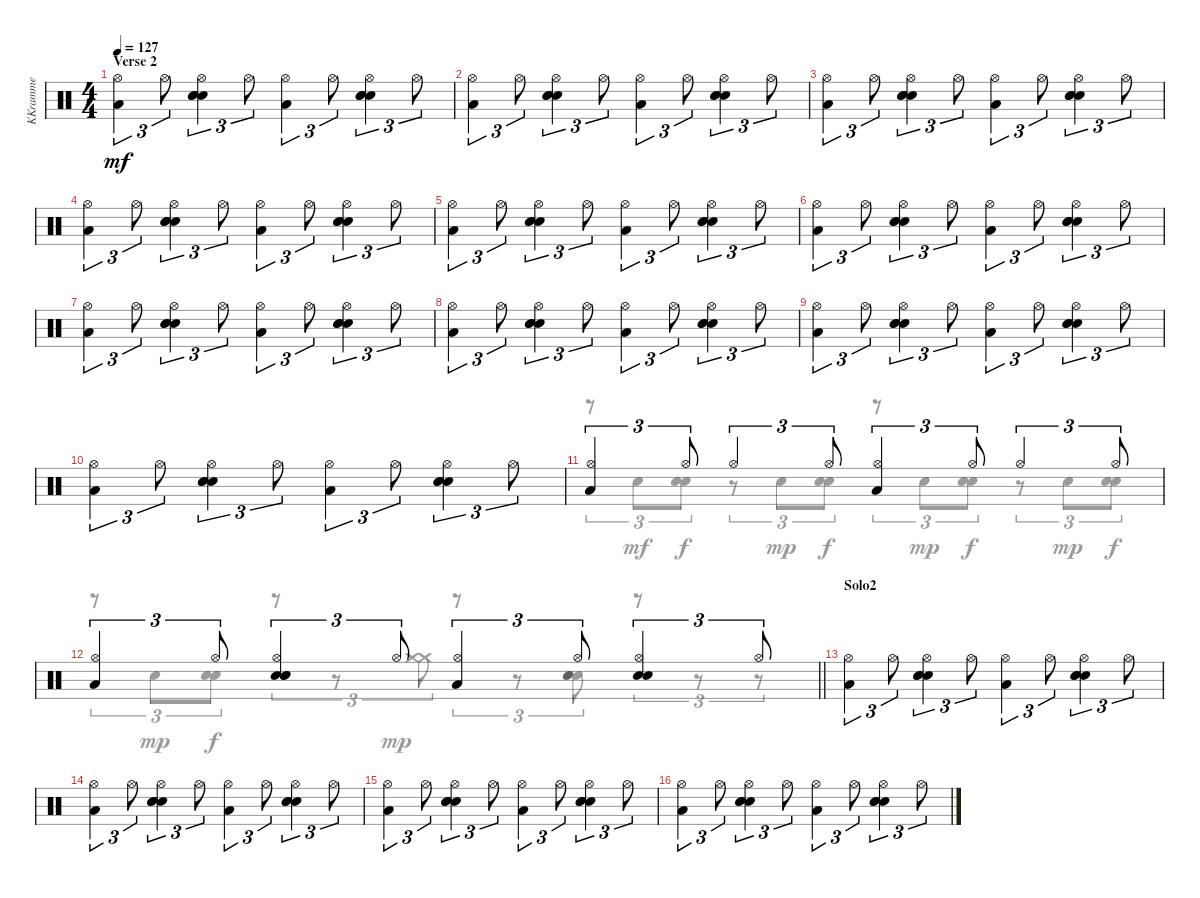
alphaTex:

\track ("KKramme" "KKramme") {instrument percussion}
\staff {score}
\articulation defaults
\voice
\ts (4 4)
\section ("" "Verse 2")
\tempo 127
\clef neutral
\ks c
("Low Tom (hit)" "Hi-Hat (open)").4{tu (3 2) dy mf} "Hi-Hat (open)".8{tu (3 2)} ("Snare (hit) 2" "Snare (hit) 2" "Snare (hit) 2" "Hi-Hat (open)").4{tu (3 2)} "Hi-Hat (open)".8{tu (3 2)} ("Low Tom (hit)" "Hi-Hat (open)").4{tu (3 2)} "Hi-Hat (open)".8{tu (3 2)} ("Snare (hit) 2" "Snare (hit) 2" "Snare (hit) 2" "Hi-Hat (open)").4{tu (3 2)} "Hi-Hat (open)".8{tu (3 2)} |
("Low Tom (hit)" "Hi-Hat (open)").4{tu (3 2)} "Hi-Hat (open)".8{tu (3 2)} ("Snare (hit) 2" "Snare (hit) 2" "Snare (hit) 2" "Hi-Hat (open)").4{tu (3 2)} "Hi-Hat (open)".8{tu (3 2)} ("Low Tom (hit)" "Hi-Hat (open)").4{tu (3 2)} "Hi-Hat (open)".8{tu (3 2)} ("Snare (hit) 2" "Snare (hit) 2" "Snare (hit) 2" "Hi-Hat (open)").4{tu (3 2)} "Hi-Hat (open)".8{tu (3 2)} |
("Low Tom (hit)" "Hi-Hat (open)").4{tu (3 2)} "Hi-Hat (open)".8{tu (3 2)} ("Snare (hit) 2" "Snare (hit) 2" "Snare (hit) 2" "Hi-Hat (open)").4{tu (3 2)} "Hi-Hat (open)".8{tu (3 2)} ("Low Tom (hit)" "Hi-Hat (open)").4{tu (3 2)} "Hi-Hat (open)".8{tu (3 2)} ("Snare (hit) 2" "Snare (hit) 2" "Snare (hit) 2" "Hi-Hat (open)").4{tu (3 2)} "Hi-Hat (open)".8{tu (3 2)} |
("Low Tom (hit)" "Hi-Hat (open)").4{tu (3 2)} "Hi-Hat (open)".8{tu (3 2)} ("Snare (hit) 2" "Snare (hit) 2" "Snare (hit) 2" "Hi-Hat (open)").4{tu (3 2)} "Hi-Hat (open)".8{tu (3 2)} ("Low Tom (hit)" "Hi-Hat (open)").4{tu (3 2)} "Hi-Hat (open)".8{tu (3 2)} ("Snare (hit) 2" "Snare (hit) 2" "Snare (hit) 2" "Hi-Hat (open)").4{tu (3 2)} "Hi-Hat (open)".8{tu (3 2)} |
("Low Tom (hit)" "Hi-Hat (open)").4{tu (3 2)} "Hi-Hat (open)".8{tu (3 2)} ("Snare (hit) 2" "Snare (hit) 2" "Snare (hit) 2" "Hi-Hat (open)").4{tu (3 2)} "Hi-Hat (open)".8{tu (3 2)} ("Low Tom (hit)" "Hi-Hat (open)").4{tu (3 2)} "Hi-Hat (open)".8{tu (3 2)} ("Snare (hit) 2" "Snare (hit) 2" "Snare (hit) 2" "Hi-Hat (open)").4{tu (3 2)} "Hi-Hat (open)".8{tu (3 2)} |
("Low Tom (hit)" "Hi-Hat (open)").4{tu (3 2)} "Hi-Hat (open)".8{tu (3 2)} ("Snare (hit) 2" "Snare (hit) 2" "Snare (hit) 2" "Hi-Hat (open)").4{tu (3 2)} "Hi-Hat (open)".8{tu (3 2)} ("Low Tom (hit)" "Hi-Hat (open)").4{tu (3 2)} "Hi-Hat (open)".8{tu (3 2)} ("Snare (hit) 2" "Snare (hit) 2" "Snare (hit) 2" "Hi-Hat (open)").4{tu (3 2)} "Hi-Hat (open)".8{tu (3 2)} |
("Low Tom (hit)" "Hi-Hat (open)").4{tu (3 2)} "Hi-Hat (open)".8{tu (3 2)} ("Snare (hit) 2" "Snare (hit) 2" "Snare (hit) 2" "Hi-Hat (open)").4{tu (3 2)} "Hi-Hat (open)".8{tu (3 2)} ("Low Tom (hit)" "Hi-Hat (open)").4{tu (3 2)} "Hi-Hat (open)".8{tu (3 2)} ("Snare (hit) 2" "Snare (hit) 2" "Snare (hit) 2" "Hi-Hat (open)").4{tu (3 2)} "Hi-Hat (open)".8{tu (3 2)} |
("Low Tom (hit)" "Hi-Hat (open)").4{tu (3 2)} "Hi-Hat (open)".8{tu (3 2)} ("Snare (hit) 2" "Snare (hit) 2" "Snare (hit) 2" "Hi-Hat (open)").4{tu (3 2)} "Hi-Hat (open)".8{tu (3 2)} ("Low Tom (hit)" "Hi-Hat (open)").4{tu (3 2)} "Hi-Hat (open)".8{tu (3 2)} ("Snare (hit) 2" "Snare (hit) 2" "Snare (hit) 2" "Hi-Hat (open)").4{tu (3 2)} "Hi-Hat (open)".8{tu (3 2)} |
("Low Tom (hit)" "Hi-Hat (open)").4{tu (3 2)} "Hi-Hat (open)".8{tu (3 2)} ("Snare (hit) 2" "Snare (hit) 2" "Snare (hit) 2" "Hi-Hat (open)").4{tu (3 2)} "Hi-Hat (open)".8{tu (3 2)} ("Low Tom (hit)" "Hi-Hat (open)").4{tu (3 2)} "Hi-Hat (open)".8{tu (3 2)} ("Snare (hit) 2" "Snare (hit) 2" "Snare (hit) 2" "Hi-Hat (open)").4{tu (3 2)} "Hi-Hat (open)".8{tu (3 2)} |
("Low Tom (hit)" "Hi-Hat (open)").4{tu (3 2)} "Hi-Hat (open)".8{tu (3 2)} ("Snare (hit) 2" "Snare (hit) 2" "Snare (hit) 2" "Hi-Hat (open)").4{tu (3 2)} "Hi-Hat (open)".8{tu (3 2)} ("Low Tom (hit)" "Hi-Hat (open)").4{tu (3 2)} "Hi-Hat (open)".8{tu (3 2)} ("Snare (hit) 2" "Snare (hit) 2" "Snare (hit) 2" "Hi-Hat (open)").4{tu (3 2)} "Hi-Hat (open)".8{tu (3 2)} |
("Low Tom (hit)" "Hi-Hat (open)").4{tu (3 2)} "Hi-Hat (open)".8{tu (3 2)} "Hi-Hat (open)".4{tu (3 2)} "Hi-Hat (open)".8{tu (3 2)} ("Low Tom (hit)" "Hi-Hat (open)").4{tu (3 2)} "Hi-Hat (open)".8{tu (3 2)} "Hi-Hat (open)".4{tu (3 2)} "Hi-Hat (open)".8{tu (3 2)} |
\barLineRight lightlight
("Low Tom (hit)" "Hi-Hat (open)").4{tu (3 2)} "Hi-Hat (open)".8{tu (3 2)} ("Snare (hit) 2" "Snare (hit) 2" "Snare (hit) 2" "Hi-Hat (open)").4{tu (3 2)} "Hi-Hat (open)".8{tu (3 2)} ("Low Tom (hit)" "Hi-Hat (open)").4{tu (3 2)} "Hi-Hat (open)".8{tu (3 2)} ("Snare (hit) 2" "Snare (hit) 2" "Hi-Hat (open)").4{tu (3 2)} "Hi-Hat (open)".8{tu (3 2)} |
\section ("" "Solo2")
("Low Tom (hit)" "Hi-Hat (open)").4{tu (3 2)} "Hi-Hat (open)".8{tu (3 2)} ("Snare (hit) 2" "Snare (hit) 2" "Snare (hit) 2" "Hi-Hat (open)").4{tu (3 2)} "Hi-Hat (open)".8{tu (3 2)} ("Low Tom (hit)" "Hi-Hat (open)").4{tu (3 2)} "Hi-Hat (open)".8{tu (3 2)} ("Snare (hit) 2" "Snare (hit) 2" "Snare (hit) 2" "Hi-Hat (open)").4{tu (3 2)} "Hi-Hat (open)".8{tu (3 2)} |
("Low Tom (hit)" "Hi-Hat (open)").4{tu (3 2)} "Hi-Hat (open)".8{tu (3 2)} ("Snare (hit) 2" "Snare (hit) 2" "Snare (hit) 2" "Hi-Hat (open)").4{tu (3 2)} "Hi-Hat (open)".8{tu (3 2)} ("Low Tom (hit)" "Hi-Hat (open)").4{tu (3 2)} "Hi-Hat (open)".8{tu (3 2)} ("Snare (hit) 2" "Snare (hit) 2" "Snare (hit) 2" "Hi-Hat (open)").4{tu (3 2)} "Hi-Hat (open)".8{tu (3 2)} |
("Low Tom (hit)" "Hi-Hat (open)").4{tu (3 2)} "Hi-Hat (open)".8{tu (3 2)} ("Snare (hit) 2" "Snare (hit) 2" "Snare (hit) 2" "Hi-Hat (open)").4{tu (3 2)} "Hi-Hat (open)".8{tu (3 2)} ("Low Tom (hit)" "Hi-Hat (open)").4{tu (3 2)} "Hi-Hat (open)".8{tu (3 2)} ("Snare (hit) 2" "Snare (hit) 2" "Snare (hit) 2" "Hi-Hat (open)").4{tu (3 2)} "Hi-Hat (open)".8{tu (3 2)} |
("Low Tom (hit)" "Hi-Hat (open)").4{tu (3 2)} "Hi-Hat (open)".8{tu (3 2)} ("Snare (hit) 2" "Snare (hit) 2" "Snare (hit) 2" "Hi-Hat (open)").4{tu (3 2)} "Hi-Hat (open)".8{tu (3 2)} ("Low Tom (hit)" "Hi-Hat (open)").4{tu (3 2)} "Hi-Hat (open)".8{tu (3 2)} ("Snare (hit) 2" "Snare (hit) 2" "Snare (hit) 2" "Hi-Hat (open)").4{tu (3 2)} "Hi-Hat (open)".8{tu (3 2)}
\voice
\clef neutral
\ottava regular
\simile none
\ks c
|
|
|
|
|
|
|
|
|
|
r.8{tu (3 2)} "Snare (hit) 2".8{tu (3 2)} ("Snare (hit) 2" "Snare (hit) 2").8{tu (3 2) dy f} r.8{tu (3 2)} "Snare (hit) 2".8{tu (3 2) dy mp} ("Snare (hit) 2" "Snare (hit) 2").8{tu (3 2) dy f} r.8{tu (3 2)} "Snare (hit) 2".8{tu (3 2) dy mp} ("Snare (hit) 2" "Snare (hit) 2").8{tu (3 2) dy f} r.8{tu (3 2)} "Snare (hit) 2".8{tu (3 2) dy mp} ("Snare (hit) 2" "Snare (hit) 2").8{tu (3 2) dy f} |
\barLineRight lightlight
r.8{tu (3 2)} "Snare (hit) 2".8{tu (3 2) dy mp} ("Snare (hit) 2" "Snare (hit) 2").8{tu (3 2) dy f} r.8{tu (3 2)} r.8{tu (3 2)} ("Crash medium (hit)" "Crash medium (hit)").8{tu (3 2) dy mp} r.8{tu (3 2)} r.8{tu (3 2)} ("Snare (hit) 2" "Snare (hit) 2" "Snare (hit) 2").8{tu (3 2)} r.8{tu (3 2)} r.8{tu (3 2)} r.8{tu (3 2)} |
|
|
|
